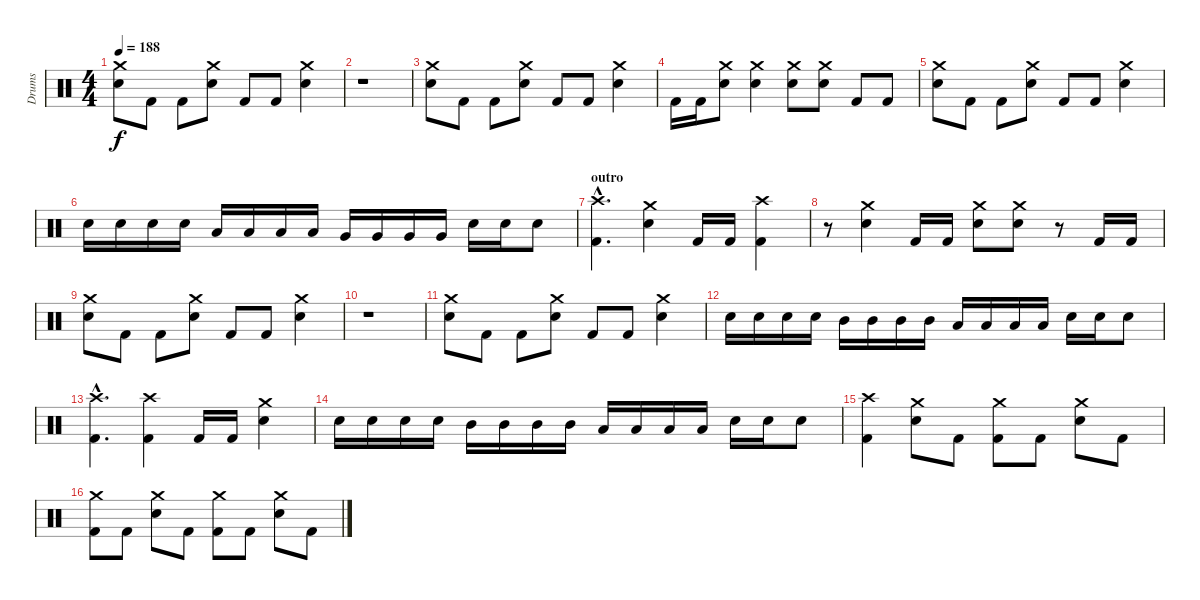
\track ("Drums" "Drums") {instrument percussion}
\staff {score}
\articulation defaults
\ts (4 4)
\tempo 188
\clef neutral
\ks c
("Crash medium (hit)" "Electric Snare (hit)").8{dy f} "Kick (hit) 2".8 "Kick (hit) 2".8 ("Crash medium (hit)" "Electric Snare (hit)").8 "Kick (hit) 2".8 "Kick (hit) 2".8 ("Crash medium (hit)" "Electric Snare (hit)").4 |
r.1 |
("Crash medium (hit)" "Electric Snare (hit)").8 "Kick (hit) 2".8 "Kick (hit) 2".8 ("Crash medium (hit)" "Electric Snare (hit)").8 "Kick (hit) 2".8 "Kick (hit) 2".8 ("Crash medium (hit)" "Electric Snare (hit)").4 |
"Kick (hit) 2".16 "Kick (hit) 2".16 ("Crash medium (hit)" "Electric Snare (hit)").8 ("Crash medium (hit)" "Electric Snare (hit)").4 ("Crash medium (hit)" "Electric Snare (hit)").8 ("Crash medium (hit)" "Electric Snare (hit)").8 "Kick (hit) 2".8 "Kick (hit) 2".8 |
("Crash medium (hit)" "Electric Snare (hit)").8 "Kick (hit) 2".8 "Kick (hit) 2".8 ("Crash medium (hit)" "Electric Snare (hit)").8 "Kick (hit) 2".8 "Kick (hit) 2".8 ("Crash medium (hit)" "Electric Snare (hit)").4 |
"Electric Snare (hit)".16 "Electric Snare (hit)".16 "Electric Snare (hit)".16 "Electric Snare (hit)".16 "Low Tom (hit)".16 "Low Tom (hit)".16 "Low Tom (hit)".16 "Low Tom (hit)".16 "Very Low Tom (hit)".16 "Very Low Tom (hit)".16 "Very Low Tom (hit)".16 "Very Low Tom (hit)".16 "Electric Snare (hit)".16 "Electric Snare (hit)".16 "Electric Snare (hit)".8 |
\section ("" "outro")
("Crash high (hit)"{hac} "Kick (hit) 2"{hac}).4{d} ("Crash medium (hit)" "Electric Snare (hit)").4 "Kick (hit) 2".16 "Kick (hit) 2".16 ("Crash high (hit)" "Kick (hit) 2").4 |
r.8 ("Crash medium (hit)" "Electric Snare (hit)").4 "Kick (hit) 2".16 "Kick (hit) 2".16 ("Crash medium (hit)" "Electric Snare (hit)").8 ("Crash medium (hit)" "Electric Snare (hit)").8 r.8 "Kick (hit) 2".16 "Kick (hit) 2".16 |
("Crash medium (hit)" "Electric Snare (hit)").8 "Kick (hit) 2".8 "Kick (hit) 2".8 ("Crash medium (hit)" "Electric Snare (hit)").8 "Kick (hit) 2".8 "Kick (hit) 2".8 ("Crash medium (hit)" "Electric Snare (hit)").4 |
r.1 |
("Crash medium (hit)" "Electric Snare (hit)").8 "Kick (hit) 2".8 "Kick (hit) 2".8 ("Crash medium (hit)" "Electric Snare (hit)").8 "Kick (hit) 2".8 "Kick (hit) 2".8 ("Crash medium (hit)" "Electric Snare (hit)").4 |
"Electric Snare (hit)".16 "Electric Snare (hit)".16 "Electric Snare (hit)".16 "Electric Snare (hit)".16 "Mid Tom (hit)".16 "Mid Tom (hit)".16 "Mid Tom (hit)".16 "Mid Tom (hit)".16 "Low Tom (hit)".16 "Low Tom (hit)".16 "Low Tom (hit)".16 "Low Tom (hit)".16 "Electric Snare (hit)".16 "Electric Snare (hit)".16 "Electric Snare (hit)".8 |
("Crash high (hit)"{hac} "Kick (hit) 2"{hac}).4{d} ("Crash high (hit)" "Kick (hit) 2").4 "Kick (hit) 2".16 "Kick (hit) 2".16 ("Crash medium (hit)" "Electric Snare (hit)").4 |
"Electric Snare (hit)".16 "Electric Snare (hit)".16 "Electric Snare (hit)".16 "Electric Snare (hit)".16 "Mid Tom (hit)".16 "Mid Tom (hit)".16 "Mid Tom (hit)".16 "Mid Tom (hit)".16 "Low Tom (hit)".16 "Low Tom (hit)".16 "Low Tom (hit)".16 "Low Tom (hit)".16 "Electric Snare (hit)".16 "Electric Snare (hit)".16 "Electric Snare (hit)".8 |
("Crash high (hit)" "Kick (hit) 2").4 ("Crash medium (hit)" "Electric Snare (hit)").8 "Kick (hit) 2".8 ("Crash medium (hit)" "Kick (hit) 2").8 "Kick (hit) 2".8 ("Crash medium (hit)" "Electric Snare (hit)").8 "Kick (hit) 2".8 |
("Crash medium (hit)" "Kick (hit) 2").8 "Kick (hit) 2".8 ("Crash medium (hit)" "Electric Snare (hit)").8 "Kick (hit) 2".8 ("Crash medium (hit)" "Kick (hit) 2").8 "Kick (hit) 2".8 ("Crash medium (hit)" "Electric Snare (hit)").8 "Kick (hit) 2".8
